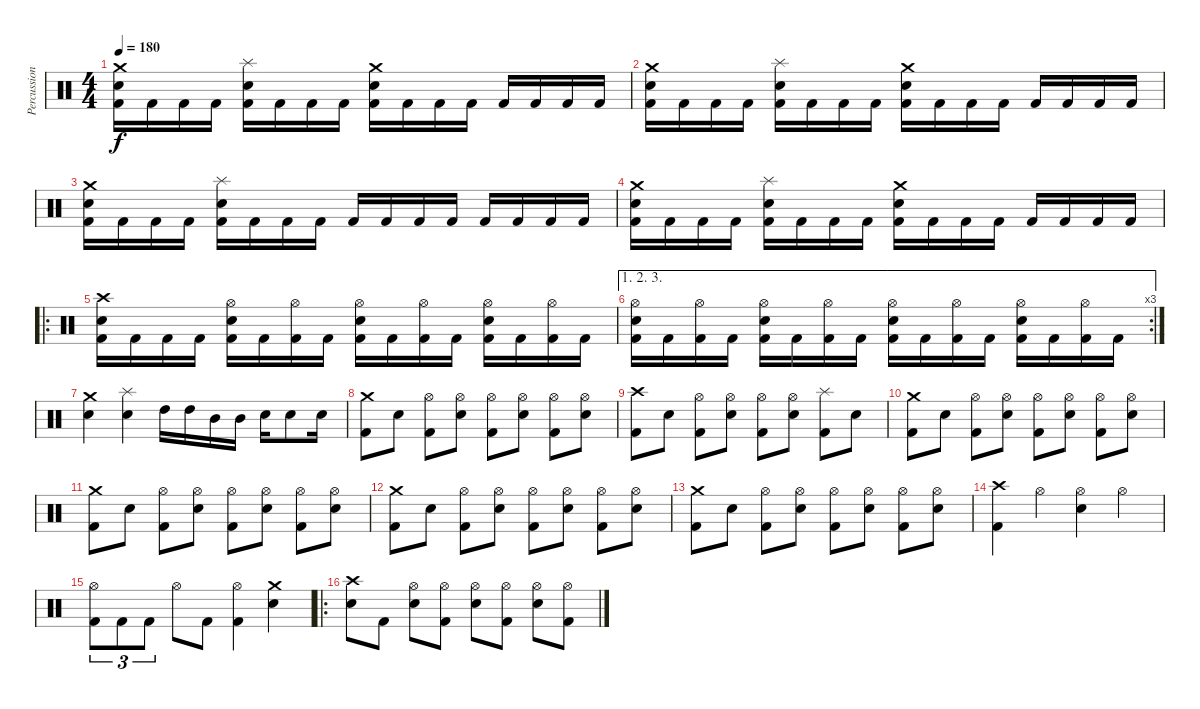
\track ("Percussion" "Percussion") {instrument percussion}
\staff {score}
\articulation defaults
\ts (4 4)
\tempo 180
\clef neutral
\ks c
("Crash medium (hit)" "Snare (hit) 2" "Kick (hit) 2").16{dy f} "Kick (hit) 2".16 "Kick (hit) 2".16 "Kick (hit) 2".16 ("Splash (hit)" "Snare (hit) 2" "Kick (hit) 2").16 "Kick (hit) 2".16 "Kick (hit) 2".16 "Kick (hit) 2".16 ("Crash medium (hit)" "Snare (hit) 2" "Kick (hit) 2").16 "Kick (hit) 2".16 "Kick (hit) 2".16 "Kick (hit) 2".16 "Kick (hit) 2".16 "Kick (hit) 2".16 "Kick (hit) 2".16 "Kick (hit) 2".16 |
("Crash medium (hit)" "Snare (hit) 2" "Kick (hit) 2").16 "Kick (hit) 2".16 "Kick (hit) 2".16 "Kick (hit) 2".16 ("Splash (hit)" "Snare (hit) 2" "Kick (hit) 2").16 "Kick (hit) 2".16 "Kick (hit) 2".16 "Kick (hit) 2".16 ("Crash medium (hit)" "Snare (hit) 2" "Kick (hit) 2").16 "Kick (hit) 2".16 "Kick (hit) 2".16 "Kick (hit) 2".16 "Kick (hit) 2".16 "Kick (hit) 2".16 "Kick (hit) 2".16 "Kick (hit) 2".16 |
("Crash medium (hit)" "Snare (hit) 2" "Kick (hit) 2").16 "Kick (hit) 2".16 "Kick (hit) 2".16 "Kick (hit) 2".16 ("Splash (hit)" "Snare (hit) 2" "Kick (hit) 2").16 "Kick (hit) 2".16 "Kick (hit) 2".16 "Kick (hit) 2".16 "Kick (hit) 2".16 "Kick (hit) 2".16 "Kick (hit) 2".16 "Kick (hit) 2".16 "Kick (hit) 2".16 "Kick (hit) 2".16 "Kick (hit) 2".16 "Kick (hit) 2".16 |
("Crash medium (hit)" "Snare (hit) 2" "Kick (hit) 2").16 "Kick (hit) 2".16 "Kick (hit) 2".16 "Kick (hit) 2".16 ("Splash (hit)" "Snare (hit) 2" "Kick (hit) 2").16 "Kick (hit) 2".16 "Kick (hit) 2".16 "Kick (hit) 2".16 ("Crash medium (hit)" "Snare (hit) 2" "Kick (hit) 2").16 "Kick (hit) 2".16 "Kick (hit) 2".16 "Kick (hit) 2".16 "Kick (hit) 2".16 "Kick (hit) 2".16 "Kick (hit) 2".16 "Kick (hit) 2".16 |
\ro
("Crash high (hit)" "Snare (hit) 2" "Kick (hit) 2").16 "Kick (hit) 2".16 "Kick (hit) 2".16 "Kick (hit) 2".16 ("Hi-Hat (open)" "Snare (hit) 2" "Kick (hit) 2").16 "Kick (hit) 2".16 ("Hi-Hat (open)" "Kick (hit) 2").16 "Kick (hit) 2".16 ("Hi-Hat (open)" "Snare (hit) 2" "Kick (hit) 2").16 "Kick (hit) 2".16 ("Hi-Hat (open)" "Kick (hit) 2").16 "Kick (hit) 2".16 ("Hi-Hat (open)" "Snare (hit) 2" "Kick (hit) 2").16 "Kick (hit) 2".16 ("Hi-Hat (open)" "Kick (hit) 2").16 "Kick (hit) 2".16 |
\ae (1 2 3)
\rc 3
("Hi-Hat (open)" "Snare (hit) 2" "Kick (hit) 2").16 "Kick (hit) 2".16 ("Hi-Hat (open)" "Kick (hit) 2").16 "Kick (hit) 2".16 ("Hi-Hat (open)" "Snare (hit) 2" "Kick (hit) 2").16 "Kick (hit) 2".16 ("Hi-Hat (open)" "Kick (hit) 2").16 "Kick (hit) 2".16 ("Hi-Hat (open)" "Snare (hit) 2" "Kick (hit) 2").16 "Kick (hit) 2".16 ("Hi-Hat (open)" "Kick (hit) 2").16 "Kick (hit) 2".16 ("Hi-Hat (open)" "Snare (hit) 2" "Kick (hit) 2").16 "Kick (hit) 2".16 ("Hi-Hat (open)" "Kick (hit) 2").16 "Kick (hit) 2".16 |
("Crash medium (hit)" "Snare (hit) 2").4 ("Splash (hit)" "Snare (hit) 2").4 "High Tom (hit)".16 "High Tom (hit)".16 "Mid Tom (hit)".16 "Mid Tom (hit)".16 "Snare (hit) 2".16 "Snare (hit) 2".8 "Snare (hit) 2".16 |
("Crash medium (hit)" "Kick (hit) 2").8 "Snare (hit) 2".8 ("Hi-Hat (open)" "Kick (hit) 2").8 ("Hi-Hat (open)" "Snare (hit) 2").8 ("Hi-Hat (open)" "Kick (hit) 2").8 ("Hi-Hat (open)" "Snare (hit) 2").8 ("Hi-Hat (open)" "Kick (hit) 2").8 ("Hi-Hat (open)" "Snare (hit) 2").8 |
("Crash high (hit)" "Kick (hit) 2").8 "Snare (hit) 2".8 ("Hi-Hat (open)" "Kick (hit) 2").8 ("Hi-Hat (open)" "Snare (hit) 2").8 ("Hi-Hat (open)" "Kick (hit) 2").8 ("Hi-Hat (open)" "Snare (hit) 2").8 ("Splash (hit)" "Kick (hit) 2").8 "Snare (hit) 2".8 |
("Crash medium (hit)" "Kick (hit) 2").8 "Snare (hit) 2".8 ("Hi-Hat (open)" "Kick (hit) 2").8 ("Hi-Hat (open)" "Snare (hit) 2").8 ("Hi-Hat (open)" "Kick (hit) 2").8 ("Hi-Hat (open)" "Snare (hit) 2").8 ("Hi-Hat (open)" "Kick (hit) 2").8 ("Hi-Hat (open)" "Snare (hit) 2").8 |
("Crash medium (hit)" "Kick (hit) 2").8 "Snare (hit) 2".8 ("Hi-Hat (open)" "Kick (hit) 2").8 ("Hi-Hat (open)" "Snare (hit) 2").8 ("Hi-Hat (open)" "Kick (hit) 2").8 ("Hi-Hat (open)" "Snare (hit) 2").8 ("Hi-Hat (open)" "Kick (hit) 2").8 ("Hi-Hat (open)" "Snare (hit) 2").8 |
("Crash medium (hit)" "Kick (hit) 2").8 "Snare (hit) 2".8 ("Hi-Hat (open)" "Kick (hit) 2").8 ("Hi-Hat (open)" "Snare (hit) 2").8 ("Hi-Hat (open)" "Kick (hit) 2").8 ("Hi-Hat (open)" "Snare (hit) 2").8 ("Hi-Hat (open)" "Kick (hit) 2").8 ("Hi-Hat (open)" "Snare (hit) 2").8 |
("Crash medium (hit)" "Kick (hit) 2").8 "Snare (hit) 2".8 ("Hi-Hat (open)" "Kick (hit) 2").8 ("Hi-Hat (open)" "Snare (hit) 2").8 ("Hi-Hat (open)" "Kick (hit) 2").8 ("Hi-Hat (open)" "Snare (hit) 2").8 ("Hi-Hat (open)" "Kick (hit) 2").8 ("Hi-Hat (open)" "Snare (hit) 2").8 |
("Crash high (hit)" "Kick (hit) 2").4 "Hi-Hat (open)".4 ("Hi-Hat (open)" "Snare (hit) 2").4 "Hi-Hat (open)".4 |
("Hi-Hat (open)" "Kick (hit) 2").8{tu (3 2)} "Kick (hit) 2".8{tu (3 2)} "Kick (hit) 2".8{tu (3 2)} "Hi-Hat (open)".8 "Kick (hit) 2".8 ("Hi-Hat (open)" "Kick (hit) 2").4 ("Crash medium (hit)" "Snare (hit) 2").4 |
\ro
("Crash high (hit)" "Snare (hit) 2").8 "Kick (hit) 2".8 ("Hi-Hat (open)" "Snare (hit) 2").8 ("Hi-Hat (open)" "Kick (hit) 2").8 ("Hi-Hat (open)" "Snare (hit) 2").8 ("Hi-Hat (open)" "Kick (hit) 2").8 ("Hi-Hat (open)" "Snare (hit) 2").8 ("Hi-Hat (open)" "Kick (hit) 2").8
